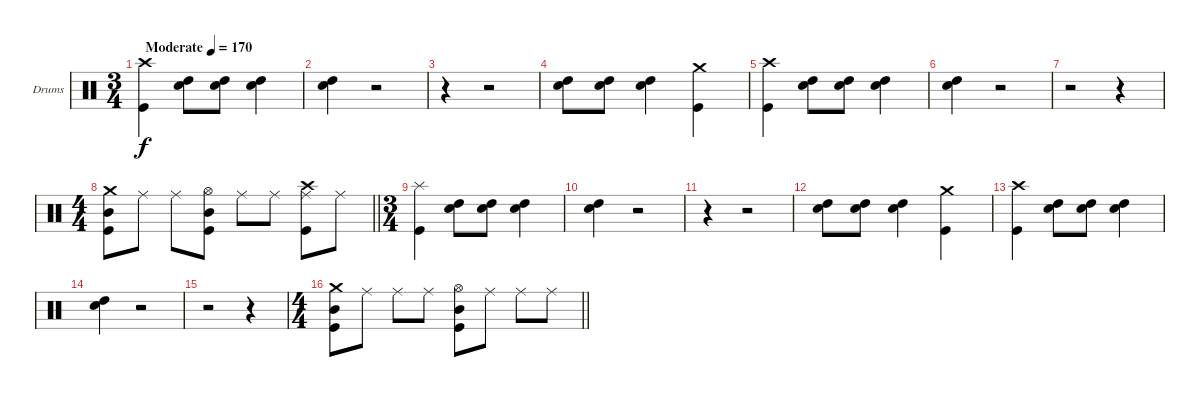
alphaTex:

\bracketExtendMode groupsimilarinstruments
\firstSystemTrackNameOrientation horizontal
\otherSystemsTrackNameOrientation horizontal
\track ("Drumkit" "Drums") {instrument percussion}
\staff {score}
\articulation defaults
\ts (3 4)
\beaming (8 2 2 2)
\tempo (170 "Moderate")
\clef neutral
\ks c
("Crash high (hit)" "Kick (hit)").4{dy f} ("Snare (hit) 2" "High Tom (hit)").8 ("Snare (hit) 2" "High Tom (hit)").8 ("Snare (hit) 2" "High Tom (hit)").4 |
("Snare (hit) 2" "High Tom (hit)").4 r.2 |
r.4 r.2 |
("Snare (hit) 2" "High Tom (hit)").8 ("Snare (hit) 2" "High Tom (hit)").8 ("Snare (hit) 2" "High Tom (hit)").4 ("Crash medium (hit)" "Kick (hit)").4 |
\beaming (8 2 2 2 2)
("Crash high (hit)" "Kick (hit)").4 ("Snare (hit) 2" "High Tom (hit)").8 ("Snare (hit) 2" "High Tom (hit)").8 ("Snare (hit) 2" "High Tom (hit)").4 |
("Snare (hit) 2" "High Tom (hit)").4 r.2 |
r.2 r.4 |
\ts (4 4)
\beaming (8 2 2 2 2)
\barLineRight lightlight
("Crash medium (hit)" "Mid Tom (hit)" "Kick (hit)").8 "Ride (middle)".8 "Ride (middle)".8 ("Hi-Hat (open)" "Mid Tom (hit)" "Kick (hit)").8 "Ride (middle)".8 "Ride (middle)".8 ("Crash high (hit)" "Ride (middle)" "Kick (hit)").8 "Ride (middle)".8 |
\ts (3 4)
\beaming (8 2 2 2 2)
("Splash (hit)" "Kick (hit)").4 ("Snare (hit) 2" "High Tom (hit)").8 ("Snare (hit) 2" "High Tom (hit)").8 ("Snare (hit) 2" "High Tom (hit)").4 |
("Snare (hit) 2" "High Tom (hit)").4 r.2 |
r.4 r.2 |
("Snare (hit) 2" "High Tom (hit)").8 ("Snare (hit) 2" "High Tom (hit)").8 ("Snare (hit) 2" "High Tom (hit)").4 ("Crash medium (hit)" "Kick (hit)").4 |
("Crash high (hit)" "Kick (hit)").4 ("Snare (hit) 2" "High Tom (hit)").8 ("Snare (hit) 2" "High Tom (hit)").8 ("Snare (hit) 2" "High Tom (hit)").4 |
("Snare (hit) 2" "High Tom (hit)").4 r.2 |
r.2 r.4 |
\ts (4 4)
\beaming (8 2 2 2 2)
\barLineRight lightlight
("Crash medium (hit)" "Mid Tom (hit)" "Kick (hit)").8 "Ride (middle)".8 "Ride (middle)".8 "Ride (middle)".8 ("Hi-Hat (open)" "Mid Tom (hit)" "Kick (hit)").8 "Ride (middle)".8 "Ride (middle)".8 "Ride (middle)".8
